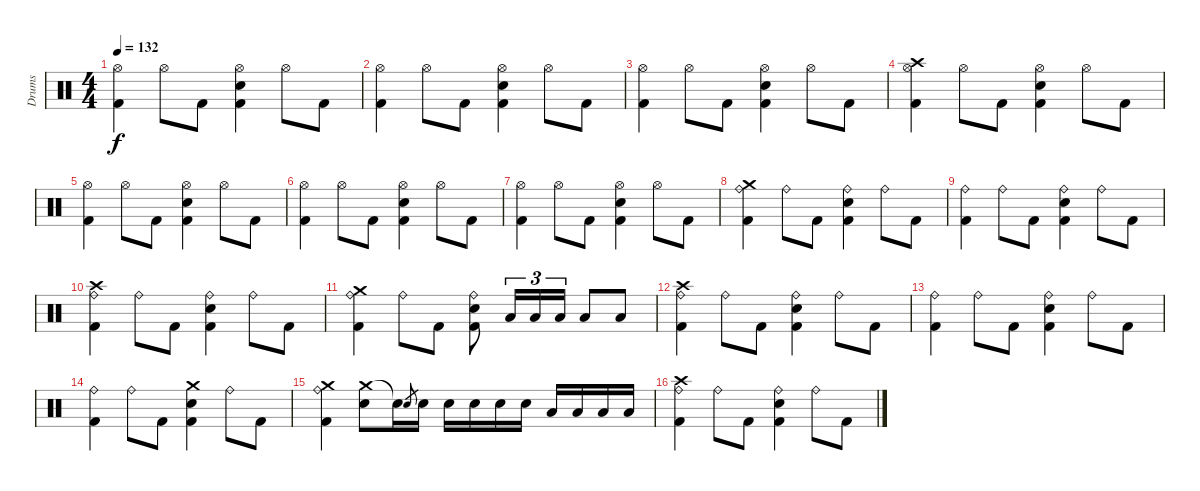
\track ("Drums" "Drums") {instrument percussion}
\staff {score}
\articulation defaults
\ts (4 4)
\tempo 132
\clef neutral
\ks c
("Hi-Hat (open)" "Kick (hit) 2").4{dy f} "Hi-Hat (open)".8 "Kick (hit) 2".8 ("Hi-Hat (open)" "Electric Snare (hit)" "Kick (hit) 2").4 "Hi-Hat (open)".8 "Kick (hit) 2".8 |
("Hi-Hat (open)" "Kick (hit) 2").4 "Hi-Hat (open)".8 "Kick (hit) 2".8 ("Hi-Hat (open)" "Electric Snare (hit)" "Kick (hit) 2").4 "Hi-Hat (open)".8 "Kick (hit) 2".8 |
("Hi-Hat (open)" "Kick (hit) 2").4 "Hi-Hat (open)".8 "Kick (hit) 2".8 ("Hi-Hat (open)" "Electric Snare (hit)" "Kick (hit) 2").4 "Hi-Hat (open)".8 "Kick (hit) 2".8 |
("Crash high (hit)" "Hi-Hat (open)" "Kick (hit) 2").4 "Hi-Hat (open)".8 "Kick (hit) 2".8 ("Hi-Hat (open)" "Electric Snare (hit)" "Kick (hit) 2").4 "Hi-Hat (open)".8 "Kick (hit) 2".8 |
("Hi-Hat (open)" "Kick (hit) 2").4 "Hi-Hat (open)".8 "Kick (hit) 2".8 ("Hi-Hat (open)" "Electric Snare (hit)" "Kick (hit) 2").4 "Hi-Hat (open)".8 "Kick (hit) 2".8 |
("Hi-Hat (open)" "Kick (hit) 2").4 "Hi-Hat (open)".8 "Kick (hit) 2".8 ("Hi-Hat (open)" "Electric Snare (hit)" "Kick (hit) 2").4 "Hi-Hat (open)".8 "Kick (hit) 2".8 |
("Hi-Hat (open)" "Kick (hit) 2").4 "Hi-Hat (open)".8 "Kick (hit) 2".8 ("Hi-Hat (open)" "Electric Snare (hit)" "Kick (hit) 2").4 "Hi-Hat (open)".8 "Kick (hit) 2".8 |
("Crash medium (hit)" "Ride (bell)" "Kick (hit) 2").4 "Ride (bell)".8 "Kick (hit) 2".8 ("Ride (bell)" "Electric Snare (hit)" "Kick (hit) 2").4 "Ride (bell)".8 "Kick (hit) 2".8 |
("Ride (bell)" "Kick (hit) 2").4 "Ride (bell)".8 "Kick (hit) 2".8 ("Ride (bell)" "Electric Snare (hit)" "Kick (hit) 2").4 "Ride (bell)".8 "Kick (hit) 2".8 |
("Crash high (hit)" "Ride (bell)" "Kick (hit) 2").4 "Ride (bell)".8 "Kick (hit) 2".8 ("Ride (bell)" "Electric Snare (hit)" "Kick (hit) 2").4 "Ride (bell)".8 "Kick (hit) 2".8 |
("Crash medium (hit)" "Ride (bell)" "Kick (hit) 2").4 "Ride (bell)".8 "Kick (hit) 2".8 ("Ride (bell)" "Electric Snare (hit)" "Kick (hit) 2").8 "Low Tom (hit)".16{tu (3 2)} "Low Tom (hit)".16{tu (3 2)} "Low Tom (hit)".16{tu (3 2)} "Low Tom (hit)".8 "Low Tom (hit)".8 |
("Crash high (hit)" "Ride (bell)" "Kick (hit) 2").4 "Ride (bell)".8 "Kick (hit) 2".8 ("Ride (bell)" "Electric Snare (hit)" "Kick (hit) 2").4 "Ride (bell)".8 "Kick (hit) 2".8 |
("Ride (bell)" "Kick (hit) 2").4 "Ride (bell)".8 "Kick (hit) 2".8 ("Ride (bell)" "Electric Snare (hit)" "Kick (hit) 2").4 "Ride (bell)".8 "Kick (hit) 2".8 |
("Ride (bell)" "Kick (hit) 2").4 "Ride (bell)".8 "Kick (hit) 2".8 ("Crash medium (hit)" "Electric Snare (hit)" "Kick (hit) 2").4 "Ride (bell)".8 "Kick (hit) 2".8 |
("Crash medium (hit)" "Ride (bell)" "Kick (hit) 2").4 ("Crash medium (hit)" "Electric Snare (hit)").8 "Snare (hit)"{t}.16 "Electric Snare (hit)".8{gr} "Electric Snare (hit)".16 "Electric Snare (hit)".16 "Electric Snare (hit)".16 "Electric Snare (hit)".16 "Electric Snare (hit)".16 "Low Tom (hit)".16 "Low Tom (hit)".16 "Low Tom (hit)".16 "Low Tom (hit)".16 |
("Crash high (hit)" "Ride (bell)" "Kick (hit) 2").4 "Ride (bell)".8 "Kick (hit) 2".8 ("Ride (bell)" "Electric Snare (hit)" "Kick (hit) 2").4 "Ride (bell)".8 "Kick (hit) 2".8
